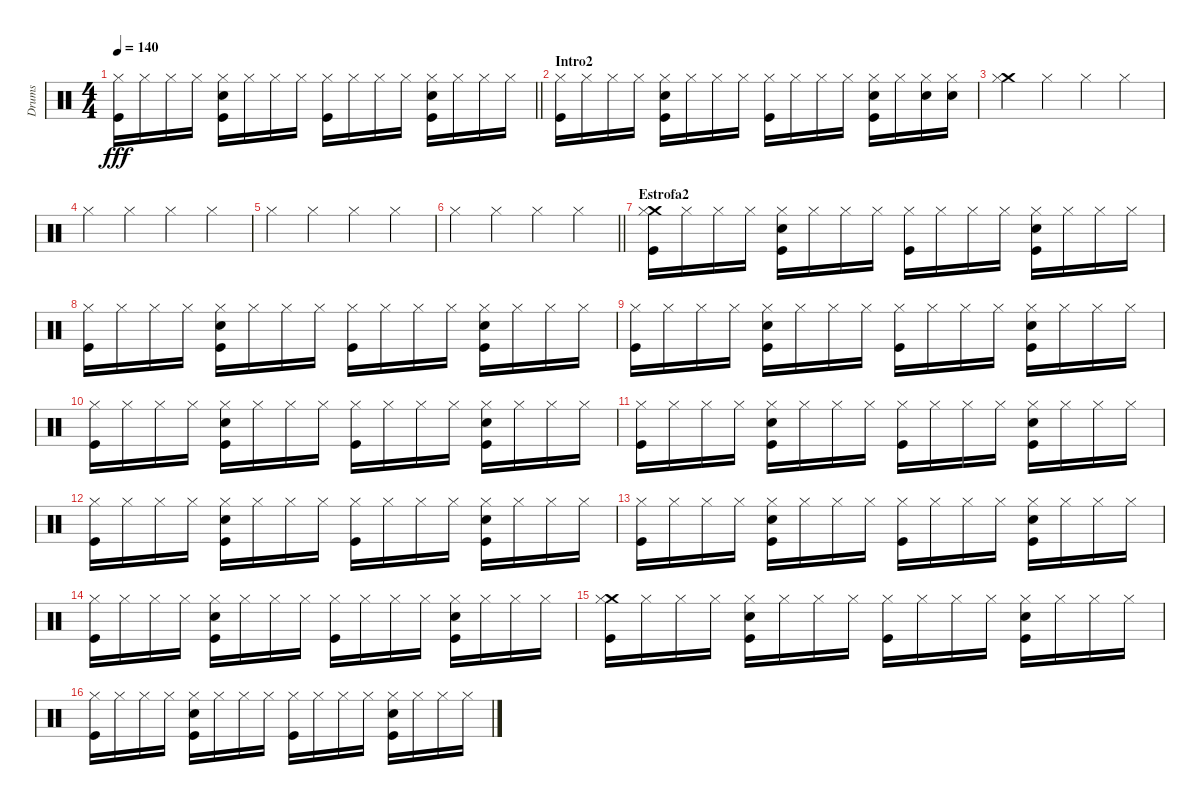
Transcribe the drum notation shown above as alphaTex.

\track ("Drums" "Drums") {instrument percussion}
\staff {score}
\articulation defaults
\ts (4 4)
\tempo 140
\clef neutral
\barLineRight lightlight
\ks c
("Hi-Hat (closed)" "Kick (hit)").16{dy fff} "Hi-Hat (closed)".16 "Hi-Hat (closed)".16 "Hi-Hat (closed)".16 ("Hi-Hat (closed)" "Electric Snare (hit)" "Kick (hit)").16 "Hi-Hat (closed)".16 "Hi-Hat (closed)".16 "Hi-Hat (closed)".16 ("Hi-Hat (closed)" "Kick (hit)").16 "Hi-Hat (closed)".16 "Hi-Hat (closed)".16 "Hi-Hat (closed)".16 ("Hi-Hat (closed)" "Electric Snare (hit)" "Kick (hit)").16 "Hi-Hat (closed)".16 "Hi-Hat (closed)".16 "Hi-Hat (closed)".16 |
\section ("" "Intro2")
("Hi-Hat (closed)" "Kick (hit)").16 "Hi-Hat (closed)".16 "Hi-Hat (closed)".16 "Hi-Hat (closed)".16 ("Hi-Hat (closed)" "Electric Snare (hit)" "Kick (hit)").16 "Hi-Hat (closed)".16 "Hi-Hat (closed)".16 "Hi-Hat (closed)".16 ("Hi-Hat (closed)" "Kick (hit)").16 "Hi-Hat (closed)".16 "Hi-Hat (closed)".16 "Hi-Hat (closed)".16 ("Hi-Hat (closed)" "Electric Snare (hit)" "Kick (hit)").16 "Hi-Hat (closed)".16 ("Hi-Hat (closed)" "Electric Snare (hit)").16 ("Hi-Hat (closed)" "Electric Snare (hit)").16 |
("Crash medium (hit)" "Hi-Hat (closed)").4 "Hi-Hat (closed)".4 "Hi-Hat (closed)".4 "Hi-Hat (closed)".4 |
"Hi-Hat (closed)".4 "Hi-Hat (closed)".4 "Hi-Hat (closed)".4 "Hi-Hat (closed)".4 |
"Hi-Hat (closed)".4 "Hi-Hat (closed)".4 "Hi-Hat (closed)".4 "Hi-Hat (closed)".4 |
\barLineRight lightlight "Hi-Hat (closed)".4 "Hi-Hat (closed)".4 "Hi-Hat (closed)".4 "Hi-Hat (closed)".4
|
\section ("" "Estrofa2")
("Crash medium (hit)" "Hi-Hat (closed)" "Kick (hit)").16 "Hi-Hat (closed)".16 "Hi-Hat (closed)".16 "Hi-Hat (closed)".16 ("Hi-Hat (closed)" "Electric Snare (hit)" "Kick (hit)").16 "Hi-Hat (closed)".16 "Hi-Hat (closed)".16 "Hi-Hat (closed)".16 ("Hi-Hat (closed)" "Kick (hit)").16 "Hi-Hat (closed)".16 "Hi-Hat (closed)".16 "Hi-Hat (closed)".16 ("Hi-Hat (closed)" "Electric Snare (hit)" "Kick (hit)").16 "Hi-Hat (closed)".16 "Hi-Hat (closed)".16 "Hi-Hat (closed)".16 |
("Hi-Hat (closed)" "Kick (hit)").16 "Hi-Hat (closed)".16 "Hi-Hat (closed)".16 "Hi-Hat (closed)".16 ("Hi-Hat (closed)" "Electric Snare (hit)" "Kick (hit)").16 "Hi-Hat (closed)".16 "Hi-Hat (closed)".16 "Hi-Hat (closed)".16 ("Hi-Hat (closed)" "Kick (hit)").16 "Hi-Hat (closed)".16 "Hi-Hat (closed)".16 "Hi-Hat (closed)".16 ("Hi-Hat (closed)" "Electric Snare (hit)" "Kick (hit)").16 "Hi-Hat (closed)".16 "Hi-Hat (closed)".16 "Hi-Hat (closed)".16 |
("Hi-Hat (closed)" "Kick (hit)").16 "Hi-Hat (closed)".16 "Hi-Hat (closed)".16 "Hi-Hat (closed)".16 ("Hi-Hat (closed)" "Electric Snare (hit)" "Kick (hit)").16 "Hi-Hat (closed)".16 "Hi-Hat (closed)".16 "Hi-Hat (closed)".16 ("Hi-Hat (closed)" "Kick (hit)").16 "Hi-Hat (closed)".16 "Hi-Hat (closed)".16 "Hi-Hat (closed)".16 ("Hi-Hat (closed)" "Electric Snare (hit)" "Kick (hit)").16 "Hi-Hat (closed)".16 "Hi-Hat (closed)".16 "Hi-Hat (closed)".16 |
("Hi-Hat (closed)" "Kick (hit)").16 "Hi-Hat (closed)".16 "Hi-Hat (closed)".16 "Hi-Hat (closed)".16 ("Hi-Hat (closed)" "Electric Snare (hit)" "Kick (hit)").16 "Hi-Hat (closed)".16 "Hi-Hat (closed)".16 "Hi-Hat (closed)".16 ("Hi-Hat (closed)" "Kick (hit)").16 "Hi-Hat (closed)".16 "Hi-Hat (closed)".16 "Hi-Hat (closed)".16 ("Hi-Hat (closed)" "Electric Snare (hit)" "Kick (hit)").16 "Hi-Hat (closed)".16 "Hi-Hat (closed)".16 "Hi-Hat (closed)".16 |
("Hi-Hat (closed)" "Kick (hit)").16 "Hi-Hat (closed)".16 "Hi-Hat (closed)".16 "Hi-Hat (closed)".16 ("Hi-Hat (closed)" "Electric Snare (hit)" "Kick (hit)").16 "Hi-Hat (closed)".16 "Hi-Hat (closed)".16 "Hi-Hat (closed)".16 ("Hi-Hat (closed)" "Kick (hit)").16 "Hi-Hat (closed)".16 "Hi-Hat (closed)".16 "Hi-Hat (closed)".16 ("Hi-Hat (closed)" "Electric Snare (hit)" "Kick (hit)").16 "Hi-Hat (closed)".16 "Hi-Hat (closed)".16 "Hi-Hat (closed)".16 |
("Hi-Hat (closed)" "Kick (hit)").16 "Hi-Hat (closed)".16 "Hi-Hat (closed)".16 "Hi-Hat (closed)".16 ("Hi-Hat (closed)" "Electric Snare (hit)" "Kick (hit)").16 "Hi-Hat (closed)".16 "Hi-Hat (closed)".16 "Hi-Hat (closed)".16 ("Hi-Hat (closed)" "Kick (hit)").16 "Hi-Hat (closed)".16 "Hi-Hat (closed)".16 "Hi-Hat (closed)".16 ("Hi-Hat (closed)" "Electric Snare (hit)" "Kick (hit)").16 "Hi-Hat (closed)".16 "Hi-Hat (closed)".16 "Hi-Hat (closed)".16 |
("Hi-Hat (closed)" "Kick (hit)").16 "Hi-Hat (closed)".16 "Hi-Hat (closed)".16 "Hi-Hat (closed)".16 ("Hi-Hat (closed)" "Electric Snare (hit)" "Kick (hit)").16 "Hi-Hat (closed)".16 "Hi-Hat (closed)".16 "Hi-Hat (closed)".16 ("Hi-Hat (closed)" "Kick (hit)").16 "Hi-Hat (closed)".16 "Hi-Hat (closed)".16 "Hi-Hat (closed)".16 ("Hi-Hat (closed)" "Electric Snare (hit)" "Kick (hit)").16 "Hi-Hat (closed)".16 "Hi-Hat (closed)".16 "Hi-Hat (closed)".16 |
("Hi-Hat (closed)" "Kick (hit)").16 "Hi-Hat (closed)".16 "Hi-Hat (closed)".16 "Hi-Hat (closed)".16 ("Hi-Hat (closed)" "Electric Snare (hit)" "Kick (hit)").16 "Hi-Hat (closed)".16 "Hi-Hat (closed)".16 "Hi-Hat (closed)".16 ("Hi-Hat (closed)" "Kick (hit)").16 "Hi-Hat (closed)".16 "Hi-Hat (closed)".16 "Hi-Hat (closed)".16 ("Hi-Hat (closed)" "Electric Snare (hit)" "Kick (hit)").16 "Hi-Hat (closed)".16 "Hi-Hat (closed)".16 "Hi-Hat (closed)".16 |
("Crash medium (hit)" "Hi-Hat (closed)" "Kick (hit)").16 "Hi-Hat (closed)".16 "Hi-Hat (closed)".16 "Hi-Hat (closed)".16 ("Hi-Hat (closed)" "Electric Snare (hit)" "Kick (hit)").16 "Hi-Hat (closed)".16 "Hi-Hat (closed)".16 "Hi-Hat (closed)".16 ("Hi-Hat (closed)" "Kick (hit)").16 "Hi-Hat (closed)".16 "Hi-Hat (closed)".16 "Hi-Hat (closed)".16 ("Hi-Hat (closed)" "Electric Snare (hit)" "Kick (hit)").16 "Hi-Hat (closed)".16 "Hi-Hat (closed)".16 "Hi-Hat (closed)".16 |
("Hi-Hat (closed)" "Kick (hit)").16 "Hi-Hat (closed)".16 "Hi-Hat (closed)".16 "Hi-Hat (closed)".16 ("Hi-Hat (closed)" "Electric Snare (hit)" "Kick (hit)").16 "Hi-Hat (closed)".16 "Hi-Hat (closed)".16 "Hi-Hat (closed)".16 ("Hi-Hat (closed)" "Kick (hit)").16 "Hi-Hat (closed)".16 "Hi-Hat (closed)".16 "Hi-Hat (closed)".16 ("Hi-Hat (closed)" "Electric Snare (hit)" "Kick (hit)").16 "Hi-Hat (closed)".16 "Hi-Hat (closed)".16 "Hi-Hat (closed)".16
